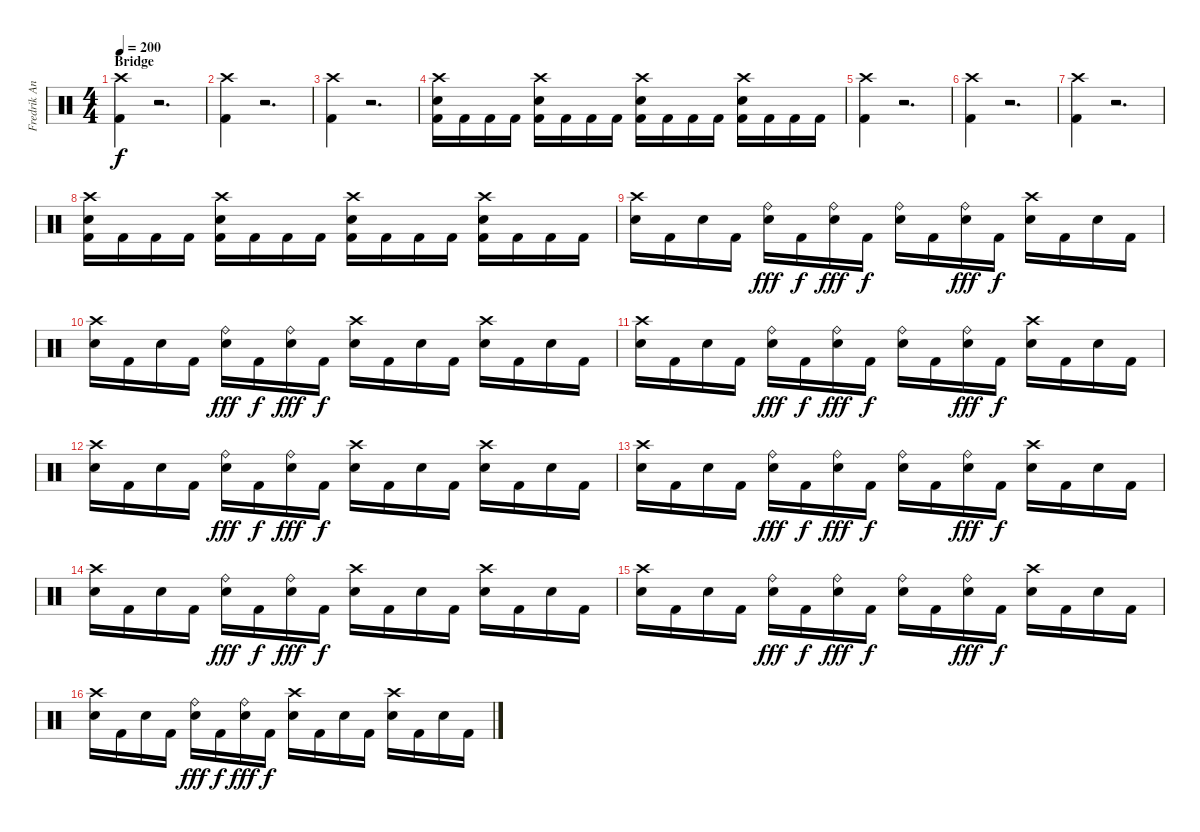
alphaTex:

\track ("Fredrik Andersson " "Fredrik An") {instrument percussion}
\staff {score}
\articulation defaults
\ts (4 4)
\section ("" "Bridge")
\tempo 200
\clef neutral
\ks c
("Crash high (hit)" "Kick (hit) 2").4{dy f} r.2{d} |
("Crash high (hit)" "Kick (hit) 2").4 r.2{d} |
("Crash high (hit)" "Kick (hit) 2").4 r.2{d} |
("Crash high (hit)" "Snare (hit) 2" "Kick (hit) 2").16 "Kick (hit) 2".16 "Kick (hit) 2".16 "Kick (hit) 2".16 ("Crash high (hit)" "Snare (hit) 2" "Kick (hit) 2").16 "Kick (hit) 2".16 "Kick (hit) 2".16 "Kick (hit) 2".16 ("Crash high (hit)" "Snare (hit) 2" "Kick (hit) 2").16 "Kick (hit) 2".16 "Kick (hit) 2".16 "Kick (hit) 2".16 ("Crash high (hit)" "Snare (hit) 2" "Kick (hit) 2").16 "Kick (hit) 2".16 "Kick (hit) 2".16 "Kick (hit) 2".16 |
("Crash high (hit)" "Kick (hit) 2").4 r.2{d} |
("Crash high (hit)" "Kick (hit) 2").4 r.2{d} |
("Crash high (hit)" "Kick (hit) 2").4 r.2{d} |
("Crash high (hit)" "Snare (hit) 2" "Kick (hit) 2").16 "Kick (hit) 2".16 "Kick (hit) 2".16 "Kick (hit) 2".16 ("Crash high (hit)" "Snare (hit) 2" "Kick (hit) 2").16 "Kick (hit) 2".16 "Kick (hit) 2".16 "Kick (hit) 2".16 ("Crash high (hit)" "Snare (hit) 2" "Kick (hit) 2").16 "Kick (hit) 2".16 "Kick (hit) 2".16 "Kick (hit) 2".16 ("Crash high (hit)" "Snare (hit) 2" "Kick (hit) 2").16 "Kick (hit) 2".16 "Kick (hit) 2".16 "Kick (hit) 2".16 |
("Crash high (hit)" "Snare (hit) 2").16 "Kick (hit) 2".16 "Snare (hit) 2".16 "Kick (hit) 2".16 ("Ride (bell)" "Snare (hit) 2").16{dy fff} "Kick (hit) 2".16{dy f} ("Ride (bell)" "Snare (hit) 2").16{dy fff} "Kick (hit) 2".16{dy f} ("Ride (bell)" "Snare (hit) 2").16 "Kick (hit) 2".16 ("Ride (bell)" "Snare (hit) 2").16{dy fff} "Kick (hit) 2".16{dy f} ("Crash high (hit)" "Snare (hit) 2").16 "Kick (hit) 2".16 "Snare (hit) 2".16 "Kick (hit) 2".16 |
("Crash high (hit)" "Snare (hit) 2").16 "Kick (hit) 2".16 "Snare (hit) 2".16 "Kick (hit) 2".16 ("Ride (bell)" "Snare (hit) 2").16{dy fff} "Kick (hit) 2".16{dy f} ("Ride (bell)" "Snare (hit) 2").16{dy fff} "Kick (hit) 2".16{dy f} ("Crash high (hit)" "Snare (hit) 2").16 "Kick (hit) 2".16 "Snare (hit) 2".16 "Kick (hit) 2".16 ("Crash high (hit)" "Snare (hit) 2").16 "Kick (hit) 2".16 "Snare (hit) 2".16 "Kick (hit) 2".16 |
("Crash high (hit)" "Snare (hit) 2").16 "Kick (hit) 2".16 "Snare (hit) 2".16 "Kick (hit) 2".16 ("Ride (bell)" "Snare (hit) 2").16{dy fff} "Kick (hit) 2".16{dy f} ("Ride (bell)" "Snare (hit) 2").16{dy fff} "Kick (hit) 2".16{dy f} ("Ride (bell)" "Snare (hit) 2").16 "Kick (hit) 2".16 ("Ride (bell)" "Snare (hit) 2").16{dy fff} "Kick (hit) 2".16{dy f} ("Crash high (hit)" "Snare (hit) 2").16 "Kick (hit) 2".16 "Snare (hit) 2".16 "Kick (hit) 2".16 |
("Crash high (hit)" "Snare (hit) 2").16 "Kick (hit) 2".16 "Snare (hit) 2".16 "Kick (hit) 2".16 ("Ride (bell)" "Snare (hit) 2").16{dy fff} "Kick (hit) 2".16{dy f} ("Ride (bell)" "Snare (hit) 2").16{dy fff} "Kick (hit) 2".16{dy f} ("Crash high (hit)" "Snare (hit) 2").16 "Kick (hit) 2".16 "Snare (hit) 2".16 "Kick (hit) 2".16 ("Crash high (hit)" "Snare (hit) 2").16 "Kick (hit) 2".16 "Snare (hit) 2".16 "Kick (hit) 2".16 |
("Crash high (hit)" "Snare (hit) 2").16 "Kick (hit) 2".16 "Snare (hit) 2".16 "Kick (hit) 2".16 ("Ride (bell)" "Snare (hit) 2").16{dy fff} "Kick (hit) 2".16{dy f} ("Ride (bell)" "Snare (hit) 2").16{dy fff} "Kick (hit) 2".16{dy f} ("Ride (bell)" "Snare (hit) 2").16 "Kick (hit) 2".16 ("Ride (bell)" "Snare (hit) 2").16{dy fff} "Kick (hit) 2".16{dy f} ("Crash high (hit)" "Snare (hit) 2").16 "Kick (hit) 2".16 "Snare (hit) 2".16 "Kick (hit) 2".16 |
("Crash high (hit)" "Snare (hit) 2").16 "Kick (hit) 2".16 "Snare (hit) 2".16 "Kick (hit) 2".16 ("Ride (bell)" "Snare (hit) 2").16{dy fff} "Kick (hit) 2".16{dy f} ("Ride (bell)" "Snare (hit) 2").16{dy fff} "Kick (hit) 2".16{dy f} ("Crash high (hit)" "Snare (hit) 2").16 "Kick (hit) 2".16 "Snare (hit) 2".16 "Kick (hit) 2".16 ("Crash high (hit)" "Snare (hit) 2").16 "Kick (hit) 2".16 "Snare (hit) 2".16 "Kick (hit) 2".16 |
("Crash high (hit)" "Snare (hit) 2").16 "Kick (hit) 2".16 "Snare (hit) 2".16 "Kick (hit) 2".16 ("Ride (bell)" "Snare (hit) 2").16{dy fff} "Kick (hit) 2".16{dy f} ("Ride (bell)" "Snare (hit) 2").16{dy fff} "Kick (hit) 2".16{dy f} ("Ride (bell)" "Snare (hit) 2").16 "Kick (hit) 2".16 ("Ride (bell)" "Snare (hit) 2").16{dy fff} "Kick (hit) 2".16{dy f} ("Crash high (hit)" "Snare (hit) 2").16 "Kick (hit) 2".16 "Snare (hit) 2".16 "Kick (hit) 2".16 |
("Crash high (hit)" "Snare (hit) 2").16 "Kick (hit) 2".16 "Snare (hit) 2".16 "Kick (hit) 2".16 ("Ride (bell)" "Snare (hit) 2").16{dy fff} "Kick (hit) 2".16{dy f} ("Ride (bell)" "Snare (hit) 2").16{dy fff} "Kick (hit) 2".16{dy f} ("Crash high (hit)" "Snare (hit) 2").16 "Kick (hit) 2".16 "Snare (hit) 2".16 "Kick (hit) 2".16 ("Crash high (hit)" "Snare (hit) 2").16 "Kick (hit) 2".16 "Snare (hit) 2".16 "Kick (hit) 2".16
